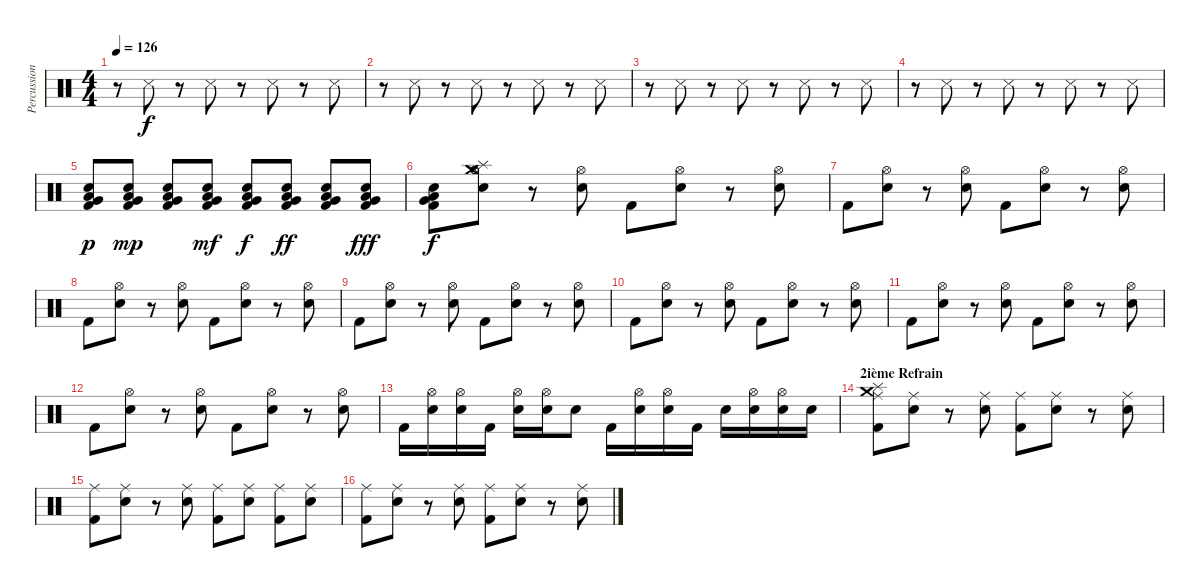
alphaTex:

\track ("Percussions" "Percussion") {instrument percussion}
\staff {score}
\articulation defaults
\ts (4 4)
\tempo 126
\clef neutral
\ks c
r.8{dy f} "Snare (side stick) 3".8 r.8 "Snare (side stick) 3".8 r.8 "Snare (side stick) 3".8 r.8 "Snare (side stick) 3".8 |
r.8 "Snare (side stick) 3".8 r.8 "Snare (side stick) 3".8 r.8 "Snare (side stick) 3".8 r.8 "Snare (side stick) 3".8 |
r.8 "Snare (side stick) 3".8 r.8 "Snare (side stick) 3".8 r.8 "Snare (side stick) 3".8 r.8 "Snare (side stick) 3".8 |
r.8 "Snare (side stick) 3".8 r.8 "Snare (side stick) 3".8 r.8 "Snare (side stick) 3".8 r.8 "Snare (side stick) 3".8 |
("Snare (hit) 2" "Low Floor Tom (hit)" "Very Low Tom (hit)" "Kick (hit) 2").8{dy p} ("Snare (hit) 2" "Low Floor Tom (hit)" "Very Low Tom (hit)" "Kick (hit) 2").8{dy mp} ("Snare (hit) 2" "Low Floor Tom (hit)" "Very Low Tom (hit)" "Kick (hit) 2").8 ("Snare (hit) 2" "Low Floor Tom (hit)" "Very Low Tom (hit)" "Kick (hit) 2").8{dy mf} ("Snare (hit) 2" "Low Floor Tom (hit)" "Very Low Tom (hit)" "Kick (hit) 2").8{dy f} ("Snare (hit) 2" "Low Floor Tom (hit)" "Very Low Tom (hit)" "Kick (hit) 2").8{dy ff} ("Snare (hit) 2" "Low Floor Tom (hit)" "Very Low Tom (hit)" "Kick (hit) 2").8 ("Snare (hit) 2" "Low Floor Tom (hit)" "Very Low Tom (hit)" "Kick (hit) 2").8{dy fff} |
("Snare (hit) 2" "Kick (hit) 2" "Low Floor Tom (hit)" "Very Low Tom (hit)").8{dy f} ("Snare (hit) 2" "Hi-Hat (open)" "Splash (hit)" "Crash medium (hit)" "Hi-Hat (open)").8 r.8 ("Snare (hit) 2" "Hi-Hat (open)").8 "Kick (hit) 2".8 ("Snare (hit) 2" "Hi-Hat (open)").8 r.8 ("Snare (hit) 2" "Hi-Hat (open)").8 |
"Kick (hit) 2".8 ("Snare (hit) 2" "Hi-Hat (open)").8 r.8 ("Snare (hit) 2" "Hi-Hat (open)").8 "Kick (hit) 2".8 ("Snare (hit) 2" "Hi-Hat (open)").8 r.8 ("Snare (hit) 2" "Hi-Hat (open)").8 |
"Kick (hit) 2".8 ("Snare (hit) 2" "Hi-Hat (open)").8 r.8 ("Snare (hit) 2" "Hi-Hat (open)").8 "Kick (hit) 2".8 ("Snare (hit) 2" "Hi-Hat (open)").8 r.8 ("Snare (hit) 2" "Hi-Hat (open)").8 |
"Kick (hit) 2".8 ("Snare (hit) 2" "Hi-Hat (open)").8 r.8 ("Snare (hit) 2" "Hi-Hat (open)").8 "Kick (hit) 2".8 ("Snare (hit) 2" "Hi-Hat (open)").8 r.8 ("Snare (hit) 2" "Hi-Hat (open)").8 |
"Kick (hit) 2".8 ("Snare (hit) 2" "Hi-Hat (open)").8 r.8 ("Snare (hit) 2" "Hi-Hat (open)").8 "Kick (hit) 2".8 ("Snare (hit) 2" "Hi-Hat (open)").8 r.8 ("Snare (hit) 2" "Hi-Hat (open)").8 |
"Kick (hit) 2".8 ("Snare (hit) 2" "Hi-Hat (open)").8 r.8 ("Snare (hit) 2" "Hi-Hat (open)").8 "Kick (hit) 2".8 ("Snare (hit) 2" "Hi-Hat (open)").8 r.8 ("Snare (hit) 2" "Hi-Hat (open)").8 |
"Kick (hit) 2".8 ("Snare (hit) 2" "Hi-Hat (open)").8 r.8 ("Snare (hit) 2" "Hi-Hat (open)").8 "Kick (hit) 2".8 ("Snare (hit) 2" "Hi-Hat (open)").8 r.8 ("Snare (hit) 2" "Hi-Hat (open)").8 |
"Kick (hit) 2".16 ("Snare (hit) 2" "Hi-Hat (open)").16 ("Snare (hit) 2" "Hi-Hat (open)").16 "Kick (hit) 2".16 ("Snare (hit) 2" "Hi-Hat (open)").16 ("Snare (hit) 2" "Hi-Hat (open)").16 "Snare (hit) 2".8 "Kick (hit) 2".16 ("Snare (hit) 2" "Hi-Hat (open)").16 ("Snare (hit) 2" "Hi-Hat (open)").16 "Kick (hit) 2".16 "Snare (hit) 2".16 ("Snare (hit) 2" "Hi-Hat (open)").16 ("Snare (hit) 2" "Hi-Hat (open)").16 "Snare (hit) 2".16 |
\section ("" "2ième Refrain")
("Kick (hit) 2" "Splash (hit)" "Crash medium (hit)" "Ride (middle)").8 ("Snare (hit) 2" "Ride (middle)").8 r.8 ("Snare (hit) 2" "Ride (middle)").8 ("Kick (hit) 2" "Ride (middle)").8 ("Snare (hit) 2" "Ride (middle)").8 r.8 ("Snare (hit) 2" "Ride (middle)").8 |
("Kick (hit) 2" "Ride (middle)").8 ("Snare (hit) 2" "Ride (middle)").8 r.8 ("Snare (hit) 2" "Ride (middle)").8 ("Kick (hit) 2" "Ride (middle)").8 ("Snare (hit) 2" "Ride (middle)").8 ("Kick (hit) 2" "Ride (middle)").8 ("Snare (hit) 2" "Ride (middle)").8 |
("Kick (hit) 2" "Ride (middle)").8 ("Snare (hit) 2" "Ride (middle)").8 r.8 ("Snare (hit) 2" "Ride (middle)").8 ("Kick (hit) 2" "Ride (middle)").8 ("Snare (hit) 2" "Ride (middle)").8 r.8 ("Snare (hit) 2" "Ride (middle)").8
